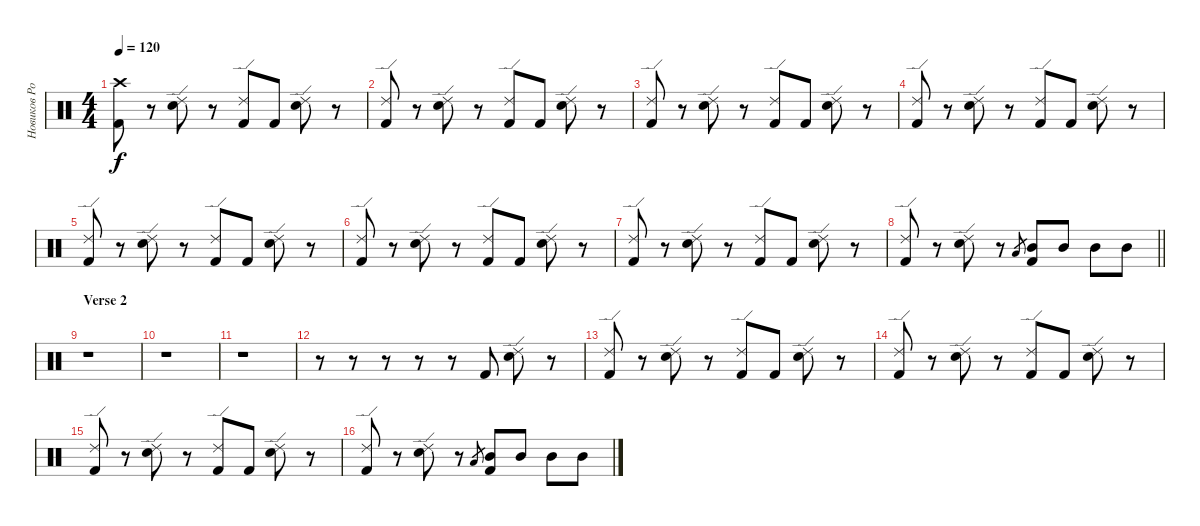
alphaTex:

\track ("Новиков Роман  ( Ударные )" "Новиков Ро") {instrument percussion}
\staff {score}
\articulation defaults
\ts (4 4)
\tempo 120
\clef neutral
\ks c
("Crash high (hit)" "Kick (hit) 2").8{dy f} r.8 ("Ride (edge) 2" "Electric Snare (hit)").8 r.8 ("Ride (edge) 2" "Kick (hit) 2").8 "Kick (hit) 2".8 ("Ride (edge) 2" "Electric Snare (hit)").8 r.8 |
("Ride (edge) 2" "Kick (hit) 2").8 r.8 ("Ride (edge) 2" "Electric Snare (hit)").8 r.8 ("Ride (edge) 2" "Kick (hit) 2").8 "Kick (hit) 2".8 ("Ride (edge) 2" "Electric Snare (hit)").8 r.8 |
("Ride (edge) 2" "Kick (hit) 2").8 r.8 ("Ride (edge) 2" "Electric Snare (hit)").8 r.8 ("Ride (edge) 2" "Kick (hit) 2").8 "Kick (hit) 2".8 ("Ride (edge) 2" "Electric Snare (hit)").8 r.8 |
("Ride (edge) 2" "Kick (hit) 2").8 r.8 ("Ride (edge) 2" "Electric Snare (hit)").8 r.8 ("Ride (edge) 2" "Kick (hit) 2").8 "Kick (hit) 2".8 ("Ride (edge) 2" "Electric Snare (hit)").8 r.8 |
("Ride (edge) 2" "Kick (hit) 2").8 r.8 ("Ride (edge) 2" "Electric Snare (hit)").8 r.8 ("Ride (edge) 2" "Kick (hit) 2").8 "Kick (hit) 2".8 ("Ride (edge) 2" "Electric Snare (hit)").8 r.8 |
("Ride (edge) 2" "Kick (hit) 2").8 r.8 ("Ride (edge) 2" "Electric Snare (hit)").8 r.8 ("Ride (edge) 2" "Kick (hit) 2").8 "Kick (hit) 2".8 ("Ride (edge) 2" "Electric Snare (hit)").8 r.8 |
("Ride (edge) 2" "Kick (hit) 2").8 r.8 ("Ride (edge) 2" "Electric Snare (hit)").8 r.8 ("Ride (edge) 2" "Kick (hit) 2").8 "Kick (hit) 2".8 ("Ride (edge) 2" "Electric Snare (hit)").8 r.8 |
\barLineRight lightlight
("Ride (edge) 2" "Kick (hit) 2").8 r.8 ("Ride (edge) 2" "Electric Snare (hit)").8 r.8 "Low Tom (hit)"{h}.8{gr} ("Mid Tom (hit)" "Kick (hit) 2").8 "Mid Tom (hit)".8 "Mid Tom (hit)".8 "Mid Tom (hit)".8 |
\section ("" "Verse 2")
r.1 |
r.1 |
r.1 |
r.8 r.8 r.8 r.8 r.8 "Kick (hit) 2".8 ("Ride (edge) 2" "Electric Snare (hit)").8 r.8 |
("Ride (edge) 2" "Kick (hit) 2").8 r.8 ("Ride (edge) 2" "Electric Snare (hit)").8 r.8 ("Ride (edge) 2" "Kick (hit) 2").8 "Kick (hit) 2".8 ("Ride (edge) 2" "Electric Snare (hit)").8 r.8 |
("Ride (edge) 2" "Kick (hit) 2").8 r.8 ("Ride (edge) 2" "Electric Snare (hit)").8 r.8 ("Ride (edge) 2" "Kick (hit) 2").8 "Kick (hit) 2".8 ("Ride (edge) 2" "Electric Snare (hit)").8 r.8 |
("Ride (edge) 2" "Kick (hit) 2").8 r.8 ("Ride (edge) 2" "Electric Snare (hit)").8 r.8 ("Ride (edge) 2" "Kick (hit) 2").8 "Kick (hit) 2".8 ("Ride (edge) 2" "Electric Snare (hit)").8 r.8 |
("Ride (edge) 2" "Kick (hit) 2").8 r.8 ("Ride (edge) 2" "Electric Snare (hit)").8 r.8 "Low Tom (hit)"{h}.8{gr} ("Mid Tom (hit)" "Kick (hit) 2").8 "Mid Tom (hit)".8 "Mid Tom (hit)".8 "Mid Tom (hit)".8
